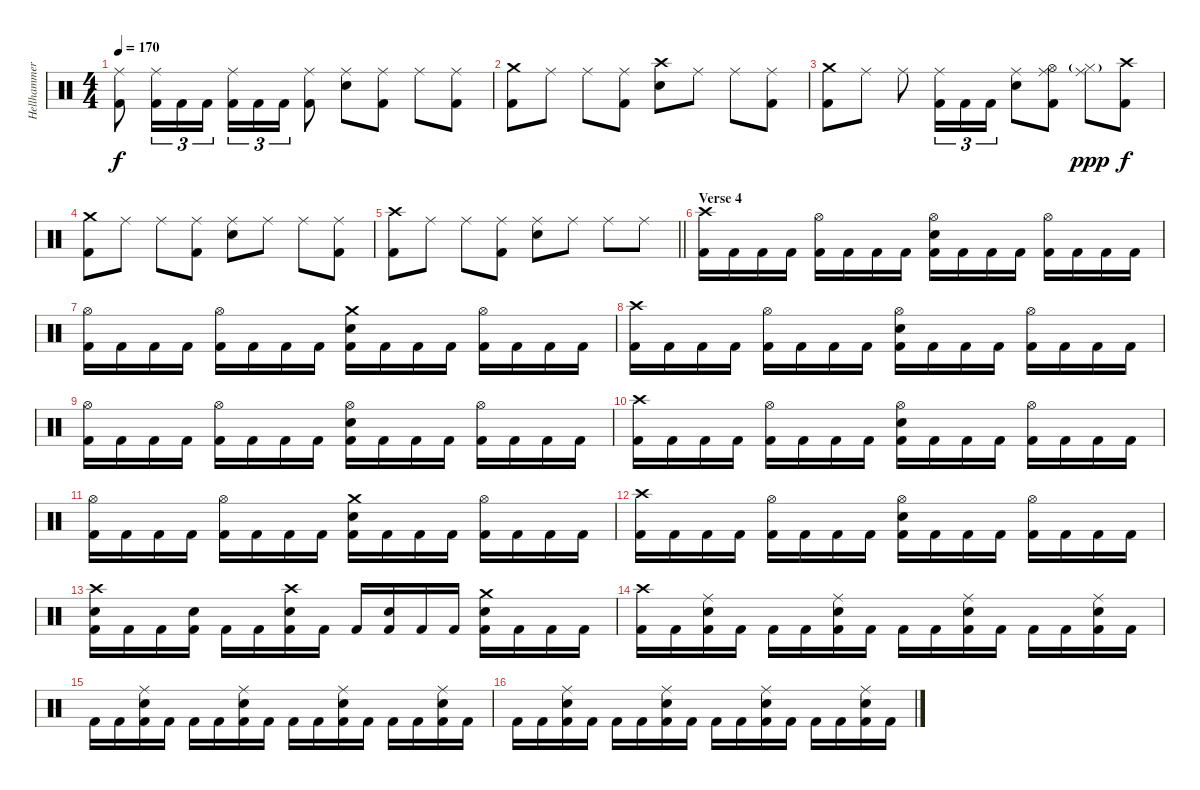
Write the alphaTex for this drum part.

\track ("Hellhammer" "Hellhammer") {instrument percussion}
\staff {score}
\articulation defaults
\ts (4 4)
\tempo 170
\clef neutral
\ks c
("Ride (middle)" "Kick (hit) 2").8{dy f} ("Ride (middle)" "Kick (hit) 2").16{tu (3 2)} "Kick (hit) 2".16{tu (3 2)} "Kick (hit) 2".16{tu (3 2)} ("Ride (middle)" "Kick (hit) 2").16{tu (3 2)} "Kick (hit) 2".16{tu (3 2)} "Kick (hit) 2".16{tu (3 2)} ("Ride (middle)" "Kick (hit) 2").8 ("Ride (middle)" "Snare (hit) 2").8 ("Ride (middle)" "Kick (hit) 2").8 "Ride (middle)".8 ("Ride (middle)" "Kick (hit) 2").8 |
("Crash medium (hit)" "Kick (hit) 2").8 "Ride (middle)".8 "Ride (middle)".8 ("Ride (middle)" "Kick (hit) 2").8 ("Crash high (hit)" "Snare (hit) 2").8 "Ride (middle)".8 "Ride (middle)".8 ("Ride (middle)" "Kick (hit) 2").8 |
("Crash medium (hit)" "Kick (hit) 2").8 "Ride (middle)".8 "Ride (middle)".8 ("Ride (middle)" "Kick (hit) 2").16{tu (3 2)} "Kick (hit) 2".16{tu (3 2)} "Kick (hit) 2".16{tu (3 2)} ("Ride (middle)" "Snare (hit) 2").8 ("Ride (middle)" "Hi-Hat (open)" "Kick (hit) 2").8 ("Ride (middle)" "Hi-Hat (closed)"{g}).8{dy ppp} ("Crash high (hit)" "Kick (hit) 2").8{dy f} |
("Crash medium (hit)" "Kick (hit) 2").8 "Ride (middle)".8 "Ride (middle)".8 ("Ride (middle)" "Kick (hit) 2").8 ("Ride (middle)" "Snare (hit) 2").8 "Ride (middle)".8 "Ride (middle)".8 ("Ride (middle)" "Kick (hit) 2").8 |
\barLineRight lightlight
("Crash high (hit)" "Kick (hit) 2").8 "Ride (middle)".8 "Ride (middle)".8 ("Ride (middle)" "Kick (hit) 2").8 ("Ride (middle)" "Snare (hit) 2").8 "Ride (middle)".8 "Ride (middle)".8 "Ride (middle)".8 |
\section ("" "Verse 4")
("Crash high (hit)" "Kick (hit) 2").16 "Kick (hit) 2".16 "Kick (hit) 2".16 "Kick (hit) 2".16 ("Hi-Hat (open)" "Kick (hit) 2").16 "Kick (hit) 2".16 "Kick (hit) 2".16 "Kick (hit) 2".16 ("Hi-Hat (open)" "Snare (hit) 2" "Kick (hit) 2").16 "Kick (hit) 2".16 "Kick (hit) 2".16 "Kick (hit) 2".16 ("Hi-Hat (open)" "Kick (hit) 2").16 "Kick (hit) 2".16 "Kick (hit) 2".16 "Kick (hit) 2".16 |
("Hi-Hat (open)" "Kick (hit) 2").16 "Kick (hit) 2".16 "Kick (hit) 2".16 "Kick (hit) 2".16 ("Hi-Hat (open)" "Kick (hit) 2").16 "Kick (hit) 2".16 "Kick (hit) 2".16 "Kick (hit) 2".16 ("Crash medium (hit)" "Snare (hit) 2" "Kick (hit) 2").16 "Kick (hit) 2".16 "Kick (hit) 2".16 "Kick (hit) 2".16 ("Hi-Hat (open)" "Kick (hit) 2").16 "Kick (hit) 2".16 "Kick (hit) 2".16 "Kick (hit) 2".16 |
("Crash high (hit)" "Kick (hit) 2").16 "Kick (hit) 2".16 "Kick (hit) 2".16 "Kick (hit) 2".16 ("Hi-Hat (open)" "Kick (hit) 2").16 "Kick (hit) 2".16 "Kick (hit) 2".16 "Kick (hit) 2".16 ("Hi-Hat (open)" "Snare (hit) 2" "Kick (hit) 2").16 "Kick (hit) 2".16 "Kick (hit) 2".16 "Kick (hit) 2".16 ("Hi-Hat (open)" "Kick (hit) 2").16 "Kick (hit) 2".16 "Kick (hit) 2".16 "Kick (hit) 2".16 |
("Hi-Hat (open)" "Kick (hit) 2").16 "Kick (hit) 2".16 "Kick (hit) 2".16 "Kick (hit) 2".16 ("Hi-Hat (open)" "Kick (hit) 2").16 "Kick (hit) 2".16 "Kick (hit) 2".16 "Kick (hit) 2".16 ("Hi-Hat (open)" "Snare (hit) 2" "Kick (hit) 2").16 "Kick (hit) 2".16 "Kick (hit) 2".16 "Kick (hit) 2".16 ("Hi-Hat (open)" "Kick (hit) 2").16 "Kick (hit) 2".16 "Kick (hit) 2".16 "Kick (hit) 2".16 |
("Crash high (hit)" "Kick (hit) 2").16 "Kick (hit) 2".16 "Kick (hit) 2".16 "Kick (hit) 2".16 ("Hi-Hat (open)" "Kick (hit) 2").16 "Kick (hit) 2".16 "Kick (hit) 2".16 "Kick (hit) 2".16 ("Hi-Hat (open)" "Snare (hit) 2" "Kick (hit) 2").16 "Kick (hit) 2".16 "Kick (hit) 2".16 "Kick (hit) 2".16 ("Hi-Hat (open)" "Kick (hit) 2").16 "Kick (hit) 2".16 "Kick (hit) 2".16 "Kick (hit) 2".16 |
("Hi-Hat (open)" "Kick (hit) 2").16 "Kick (hit) 2".16 "Kick (hit) 2".16 "Kick (hit) 2".16 ("Hi-Hat (open)" "Kick (hit) 2").16 "Kick (hit) 2".16 "Kick (hit) 2".16 "Kick (hit) 2".16 ("Crash medium (hit)" "Snare (hit) 2" "Kick (hit) 2").16 "Kick (hit) 2".16 "Kick (hit) 2".16 "Kick (hit) 2".16 ("Hi-Hat (open)" "Kick (hit) 2").16 "Kick (hit) 2".16 "Kick (hit) 2".16 "Kick (hit) 2".16 |
("Crash high (hit)" "Kick (hit) 2").16 "Kick (hit) 2".16 "Kick (hit) 2".16 "Kick (hit) 2".16 ("Hi-Hat (open)" "Kick (hit) 2").16 "Kick (hit) 2".16 "Kick (hit) 2".16 "Kick (hit) 2".16 ("Hi-Hat (open)" "Snare (hit) 2" "Kick (hit) 2").16 "Kick (hit) 2".16 "Kick (hit) 2".16 "Kick (hit) 2".16 ("Hi-Hat (open)" "Kick (hit) 2").16 "Kick (hit) 2".16 "Kick (hit) 2".16 "Kick (hit) 2".16 |
("Crash high (hit)" "Snare (hit) 2" "Kick (hit) 2").16 "Kick (hit) 2".16 "Kick (hit) 2".16 ("Snare (hit) 2" "Kick (hit) 2").16 "Kick (hit) 2".16 "Kick (hit) 2".16 ("Crash high (hit)" "Snare (hit) 2" "Kick (hit) 2").16 "Kick (hit) 2".16 "Kick (hit) 2".16 ("Snare (hit) 2" "Kick (hit) 2").16 "Kick (hit) 2".16 "Kick (hit) 2".16 ("Crash medium (hit)" "Snare (hit) 2" "Kick (hit) 2").16 "Kick (hit) 2".16 "Kick (hit) 2".16 "Kick (hit) 2".16 |
("Crash high (hit)" "Kick (hit) 2").16 "Kick (hit) 2".16 ("Ride (middle)" "Snare (hit) 2" "Kick (hit) 2").16 "Kick (hit) 2".16 "Kick (hit) 2".16 "Kick (hit) 2".16 ("Ride (middle)" "Snare (hit) 2" "Kick (hit) 2").16 "Kick (hit) 2".16 "Kick (hit) 2".16 "Kick (hit) 2".16 ("Ride (middle)" "Snare (hit) 2" "Kick (hit) 2").16 "Kick (hit) 2".16 "Kick (hit) 2".16 "Kick (hit) 2".16 ("Ride (middle)" "Snare (hit) 2" "Kick (hit) 2").16 "Kick (hit) 2".16 |
"Kick (hit) 2".16 "Kick (hit) 2".16 ("Ride (middle)" "Snare (hit) 2" "Kick (hit) 2").16 "Kick (hit) 2".16 "Kick (hit) 2".16 "Kick (hit) 2".16 ("Ride (middle)" "Snare (hit) 2" "Kick (hit) 2").16 "Kick (hit) 2".16 "Kick (hit) 2".16 "Kick (hit) 2".16 ("Ride (middle)" "Snare (hit) 2" "Kick (hit) 2").16 "Kick (hit) 2".16 "Kick (hit) 2".16 "Kick (hit) 2".16 ("Ride (middle)" "Snare (hit) 2" "Kick (hit) 2").16 "Kick (hit) 2".16 |
"Kick (hit) 2".16 "Kick (hit) 2".16 ("Ride (middle)" "Snare (hit) 2" "Kick (hit) 2").16 "Kick (hit) 2".16 "Kick (hit) 2".16 "Kick (hit) 2".16 ("Ride (middle)" "Snare (hit) 2" "Kick (hit) 2").16 "Kick (hit) 2".16 "Kick (hit) 2".16 "Kick (hit) 2".16 ("Ride (middle)" "Snare (hit) 2" "Kick (hit) 2").16 "Kick (hit) 2".16 "Kick (hit) 2".16 "Kick (hit) 2".16 ("Ride (middle)" "Snare (hit) 2" "Kick (hit) 2").16 "Kick (hit) 2".16
